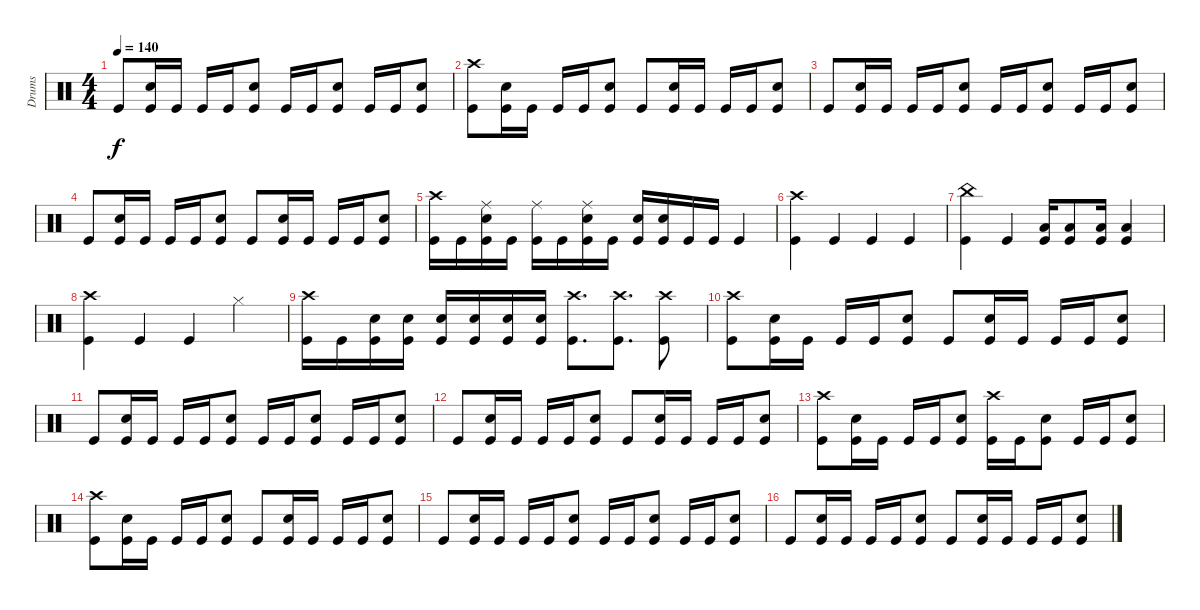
\track ("Drums" "Drums") {instrument percussion}
\staff {score}
\articulation defaults
\ts (4 4)
\tempo 140
\clef neutral
\ks c "Kick (hit)".8{dy f}
("Snare (hit) 2" "Kick (hit)").16 "Kick (hit)".16 "Kick (hit)".16 "Kick (hit)".16 ("Snare (hit) 2" "Kick (hit)").8 "Kick (hit)".16 "Kick (hit)".16 ("Snare (hit) 2" "Kick (hit)").8 "Kick (hit)".16 "Kick (hit)".16 ("Snare (hit) 2" "Kick (hit)").8 |
("Kick (hit)" "Crash high (hit)").8 ("Snare (hit) 2" "Kick (hit)").16 "Kick (hit)".16 "Kick (hit)".16 "Kick (hit)".16 ("Snare (hit) 2" "Kick (hit)").8 "Kick (hit)".8 ("Snare (hit) 2" "Kick (hit)").16 "Kick (hit)".16 "Kick (hit)".16 "Kick (hit)".16 ("Snare (hit) 2" "Kick (hit)").8 |
"Kick (hit)".8 ("Snare (hit) 2" "Kick (hit)").16 "Kick (hit)".16 "Kick (hit)".16 "Kick (hit)".16 ("Snare (hit) 2" "Kick (hit)").8 "Kick (hit)".16 "Kick (hit)".16 ("Snare (hit) 2" "Kick (hit)").8 "Kick (hit)".16 "Kick (hit)".16 ("Snare (hit) 2" "Kick (hit)").8 |
"Kick (hit)".8 ("Snare (hit) 2" "Kick (hit)").16 "Kick (hit)".16 "Kick (hit)".16 "Kick (hit)".16 ("Snare (hit) 2" "Kick (hit)").8 "Kick (hit)".8 ("Snare (hit) 2" "Kick (hit)").16 "Kick (hit)".16 "Kick (hit)".16 "Kick (hit)".16 ("Snare (hit) 2" "Kick (hit)").8 |
("Crash high (hit)" "Kick (hit)").16 "Kick (hit)".16 ("Ride (middle)" "Kick (hit)" "Snare (hit) 2").16 "Kick (hit)".16 ("Ride (middle)" "Kick (hit)").16 "Kick (hit)".16 ("Ride (middle)" "Kick (hit)" "Snare (hit) 2").16 "Kick (hit)".16 ("Snare (hit) 2" "Kick (hit)").16 ("Kick (hit)" "Snare (hit) 2").16 "Kick (hit)".16 "Kick (hit)".16 "Kick (hit)".4 |
("Kick (hit)" "Crash high (hit)").4 "Kick (hit)".4 "Kick (hit)".4 "Kick (hit)".4 |
("Kick (hit)" "China (hit)").4 "Kick (hit)".4 ("Kick (hit)" "Low Tom (hit)").16 ("Low Tom (hit)" "Kick (hit)").8 ("Kick (hit)" "Low Tom (hit)").16 ("Low Tom (hit)" "Kick (hit)").4 |
("Crash high (hit)" "Kick (hit)").4 "Kick (hit)".4 "Kick (hit)".4 "Hi-Hat (closed)".4 |
("Crash high (hit)" "Kick (hit)").16 "Kick (hit)".16 ("Snare (hit) 2" "Kick (hit)").16 ("Snare (hit) 2" "Kick (hit)").16 ("Snare (hit) 2" "Kick (hit)").16 ("Snare (hit) 2" "Kick (hit)").16 ("Kick (hit)" "Snare (hit) 2").16 ("Snare (hit) 2" "Kick (hit)").16 ("Kick (hit)" "Crash high (hit)").8{d} ("Crash high (hit)" "Kick (hit)").8{d} ("Crash high (hit)" "Kick (hit)").8 |
("Kick (hit)" "Crash high (hit)").8 ("Snare (hit) 2" "Kick (hit)").16 "Kick (hit)".16 "Kick (hit)".16 "Kick (hit)".16 ("Snare (hit) 2" "Kick (hit)").8 "Kick (hit)".8 ("Snare (hit) 2" "Kick (hit)").16 "Kick (hit)".16 "Kick (hit)".16 "Kick (hit)".16 ("Snare (hit) 2" "Kick (hit)").8 |
"Kick (hit)".8 ("Snare (hit) 2" "Kick (hit)").16 "Kick (hit)".16 "Kick (hit)".16 "Kick (hit)".16 ("Snare (hit) 2" "Kick (hit)").8 "Kick (hit)".16 "Kick (hit)".16 ("Snare (hit) 2" "Kick (hit)").8 "Kick (hit)".16 "Kick (hit)".16 ("Snare (hit) 2" "Kick (hit)").8 |
"Kick (hit)".8 ("Snare (hit) 2" "Kick (hit)").16 "Kick (hit)".16 "Kick (hit)".16 "Kick (hit)".16 ("Snare (hit) 2" "Kick (hit)").8 "Kick (hit)".8 ("Snare (hit) 2" "Kick (hit)").16 "Kick (hit)".16 "Kick (hit)".16 "Kick (hit)".16 ("Snare (hit) 2" "Kick (hit)").8 |
("Kick (hit)" "Crash high (hit)").8 ("Snare (hit) 2" "Kick (hit)").16 "Kick (hit)".16 "Kick (hit)".16 "Kick (hit)".16 ("Snare (hit) 2" "Kick (hit)").8 ("Kick (hit)" "Crash high (hit)").16 "Kick (hit)".16 ("Snare (hit) 2" "Kick (hit)").8 "Kick (hit)".16 "Kick (hit)".16 ("Snare (hit) 2" "Kick (hit)").8 |
("Kick (hit)" "Crash high (hit)").8 ("Snare (hit) 2" "Kick (hit)").16 "Kick (hit)".16 "Kick (hit)".16 "Kick (hit)".16 ("Snare (hit) 2" "Kick (hit)").8 "Kick (hit)".8 ("Snare (hit) 2" "Kick (hit)").16 "Kick (hit)".16 "Kick (hit)".16 "Kick (hit)".16 ("Snare (hit) 2" "Kick (hit)").8 |
"Kick (hit)".8 ("Snare (hit) 2" "Kick (hit)").16 "Kick (hit)".16 "Kick (hit)".16 "Kick (hit)".16 ("Snare (hit) 2" "Kick (hit)").8 "Kick (hit)".16 "Kick (hit)".16 ("Snare (hit) 2" "Kick (hit)").8 "Kick (hit)".16 "Kick (hit)".16 ("Snare (hit) 2" "Kick (hit)").8 |
"Kick (hit)".8 ("Snare (hit) 2" "Kick (hit)").16 "Kick (hit)".16 "Kick (hit)".16 "Kick (hit)".16 ("Snare (hit) 2" "Kick (hit)").8 "Kick (hit)".8 ("Snare (hit) 2" "Kick (hit)").16 "Kick (hit)".16 "Kick (hit)".16 "Kick (hit)".16 ("Snare (hit) 2" "Kick (hit)").8
